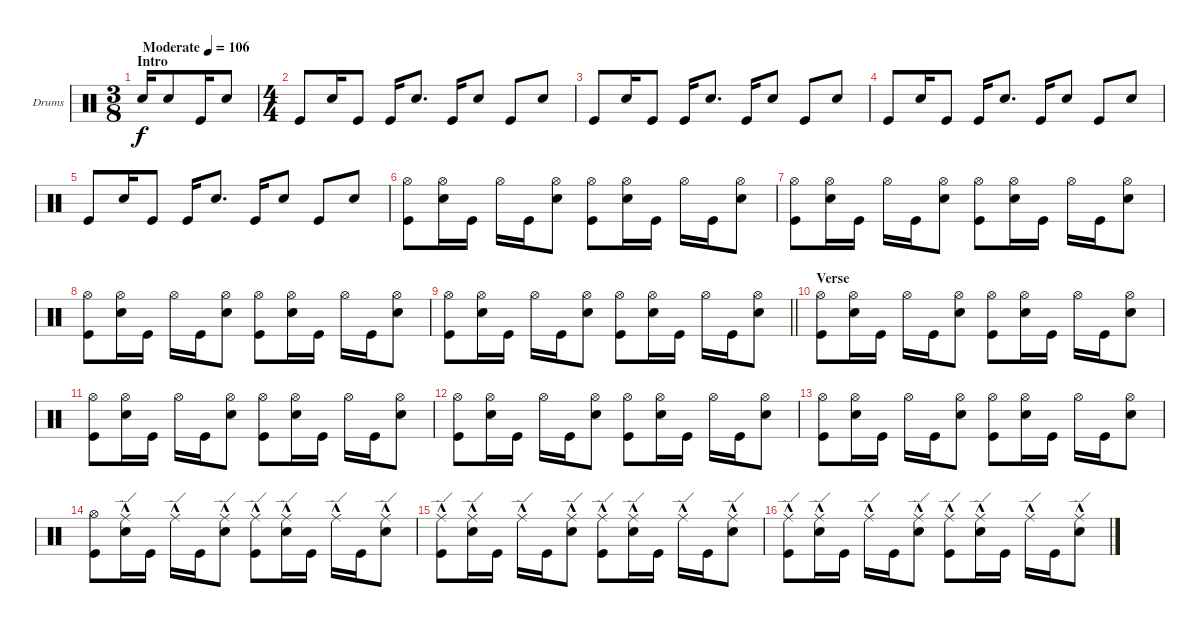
\bracketExtendMode groupsimilarinstruments
\firstSystemTrackNameOrientation horizontal
\otherSystemsTrackNameOrientation horizontal
\track ("Fabrizio" "Drums") {instrument percussion}
\staff {score}
\articulation defaults
\ts (3 8)
\beaming (8 3)
\section ("" "Intro")
\tempo (106 "Moderate")
\clef neutral
\ks c "Snare (hit) 2".16{dy f} "Snare (hit) 2".8 "Kick (hit)".16 "Snare (hit) 2".8
|
\ts (4 4)
\beaming (8 2 2 2 2)
"Kick (hit)".8 "Snare (hit) 2".16 "Kick (hit)".8 "Kick (hit)".16 "Snare (hit) 2".8{d} "Kick (hit)".16 "Snare (hit) 2".8 "Kick (hit)".8 "Snare (hit) 2".8 |
"Kick (hit)".8 "Snare (hit) 2".16 "Kick (hit)".8 "Kick (hit)".16 "Snare (hit) 2".8{d} "Kick (hit)".16 "Snare (hit) 2".8 "Kick (hit)".8 "Snare (hit) 2".8 |
"Kick (hit)".8 "Snare (hit) 2".16 "Kick (hit)".8 "Kick (hit)".16 "Snare (hit) 2".8{d} "Kick (hit)".16 "Snare (hit) 2".8 "Kick (hit)".8 "Snare (hit) 2".8 |
"Kick (hit)".8 "Snare (hit) 2".16 "Kick (hit)".8 "Kick (hit)".16 "Snare (hit) 2".8{d} "Kick (hit)".16 "Snare (hit) 2".8 "Kick (hit)".8 "Snare (hit) 2".8 |
("Hi-Hat (open)" "Kick (hit)").8 ("Hi-Hat (open)" "Snare (hit) 2").16 "Kick (hit)".16 "Hi-Hat (open)".16 "Kick (hit)".16 ("Hi-Hat (open)" "Snare (hit) 2").8 ("Hi-Hat (open)" "Kick (hit)").8 ("Hi-Hat (open)" "Snare (hit) 2").16 "Kick (hit)".16 "Hi-Hat (open)".16 "Kick (hit)".16 ("Hi-Hat (open)" "Snare (hit) 2").8 |
("Hi-Hat (open)" "Kick (hit)").8 ("Hi-Hat (open)" "Snare (hit) 2").16 "Kick (hit)".16 "Hi-Hat (open)".16 "Kick (hit)".16 ("Hi-Hat (open)" "Snare (hit) 2").8 ("Hi-Hat (open)" "Kick (hit)").8 ("Hi-Hat (open)" "Snare (hit) 2").16 "Kick (hit)".16 "Hi-Hat (open)".16 "Kick (hit)".16 ("Hi-Hat (open)" "Snare (hit) 2").8 |
("Hi-Hat (open)" "Kick (hit)").8 ("Hi-Hat (open)" "Snare (hit) 2").16 "Kick (hit)".16 "Hi-Hat (open)".16 "Kick (hit)".16 ("Hi-Hat (open)" "Snare (hit) 2").8 ("Hi-Hat (open)" "Kick (hit)").8 ("Hi-Hat (open)" "Snare (hit) 2").16 "Kick (hit)".16 "Hi-Hat (open)".16 "Kick (hit)".16 ("Hi-Hat (open)" "Snare (hit) 2").8 |
\barLineRight lightlight
("Hi-Hat (open)" "Kick (hit)").8 ("Hi-Hat (open)" "Snare (hit) 2").16 "Kick (hit)".16 "Hi-Hat (open)".16 "Kick (hit)".16 ("Hi-Hat (open)" "Snare (hit) 2").8 ("Hi-Hat (open)" "Kick (hit)").8 ("Hi-Hat (open)" "Snare (hit) 2").16 "Kick (hit)".16 "Hi-Hat (open)".16 "Kick (hit)".16 ("Hi-Hat (open)" "Snare (hit) 2").8 |
\section ("" "Verse")
("Hi-Hat (open)" "Kick (hit)").8 ("Hi-Hat (open)" "Snare (hit) 2").16 "Kick (hit)".16 "Hi-Hat (open)".16 "Kick (hit)".16 ("Hi-Hat (open)" "Snare (hit) 2").8 ("Hi-Hat (open)" "Kick (hit)").8 ("Hi-Hat (open)" "Snare (hit) 2").16 "Kick (hit)".16 "Hi-Hat (open)".16 "Kick (hit)".16 ("Hi-Hat (open)" "Snare (hit) 2").8 |
("Hi-Hat (open)" "Kick (hit)").8 ("Hi-Hat (open)" "Snare (hit) 2").16 "Kick (hit)".16 "Hi-Hat (open)".16 "Kick (hit)".16 ("Hi-Hat (open)" "Snare (hit) 2").8 ("Hi-Hat (open)" "Kick (hit)").8 ("Hi-Hat (open)" "Snare (hit) 2").16 "Kick (hit)".16 "Hi-Hat (open)".16 "Kick (hit)".16 ("Hi-Hat (open)" "Snare (hit) 2").8 |
("Hi-Hat (open)" "Kick (hit)").8 ("Hi-Hat (open)" "Snare (hit) 2").16 "Kick (hit)".16 "Hi-Hat (open)".16 "Kick (hit)".16 ("Hi-Hat (open)" "Snare (hit) 2").8 ("Hi-Hat (open)" "Kick (hit)").8 ("Hi-Hat (open)" "Snare (hit) 2").16 "Kick (hit)".16 "Hi-Hat (open)".16 "Kick (hit)".16 ("Hi-Hat (open)" "Snare (hit) 2").8 |
("Hi-Hat (open)" "Kick (hit)").8 ("Hi-Hat (open)" "Snare (hit) 2").16 "Kick (hit)".16 "Hi-Hat (open)".16 "Kick (hit)".16 ("Hi-Hat (open)" "Snare (hit) 2").8 ("Hi-Hat (open)" "Kick (hit)").8 ("Hi-Hat (open)" "Snare (hit) 2").16 "Kick (hit)".16 "Hi-Hat (open)".16 "Kick (hit)".16 ("Hi-Hat (open)" "Snare (hit) 2").8 |
("Hi-Hat (open)" "Kick (hit)").8 ("Ride (edge)"{hac} "Snare (hit) 2").16 "Kick (hit)".16 "Ride (edge)"{hac}.16 "Kick (hit)".16 ("Ride (edge)"{hac} "Snare (hit) 2").8 ("Ride (edge)"{hac} "Kick (hit)").8 ("Ride (edge)"{hac} "Snare (hit) 2").16 "Kick (hit)".16 "Ride (edge)"{hac}.16 "Kick (hit)".16 ("Ride (edge)"{hac} "Snare (hit) 2").8 |
("Ride (edge)"{hac} "Kick (hit)").8 ("Ride (edge)"{hac} "Snare (hit) 2").16 "Kick (hit)".16 "Ride (edge)"{hac}.16 "Kick (hit)".16 ("Ride (edge)"{hac} "Snare (hit) 2").8 ("Ride (edge)"{hac} "Kick (hit)").8 ("Ride (edge)"{hac} "Snare (hit) 2").16 "Kick (hit)".16 "Ride (edge)"{hac}.16 "Kick (hit)".16 ("Ride (edge)"{hac} "Snare (hit) 2").8 |
("Ride (edge)"{hac} "Kick (hit)").8 ("Ride (edge)"{hac} "Snare (hit) 2").16 "Kick (hit)".16 "Ride (edge)"{hac}.16 "Kick (hit)".16 ("Ride (edge)"{hac} "Snare (hit) 2").8 ("Ride (edge)"{hac} "Kick (hit)").8 ("Ride (edge)"{hac} "Snare (hit) 2").16 "Kick (hit)".16 "Ride (edge)"{hac}.16 "Kick (hit)".16 ("Ride (edge)"{hac} "Snare (hit) 2").8
